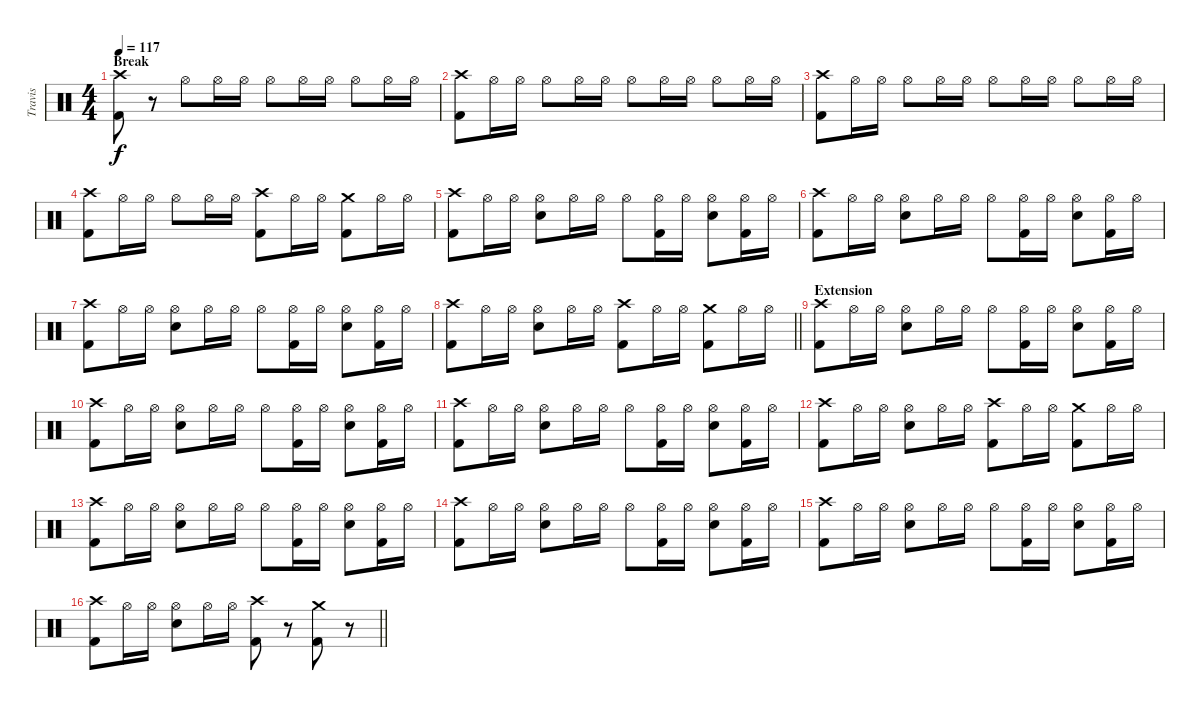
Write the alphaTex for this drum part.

\track ("Travis" "Travis") {instrument percussion}
\staff {score}
\articulation defaults
\ts (4 4)
\section ("" "Break")
\tempo 117
\clef neutral
\ks c
("Crash high (hit)" "Kick (hit) 2").8{dy f} r.8 "Hi-Hat (open)".8 "Hi-Hat (open)".16 "Hi-Hat (open)".16 "Hi-Hat (open)".8 "Hi-Hat (open)".16 "Hi-Hat (open)".16 "Hi-Hat (open)".8 "Hi-Hat (open)".16 "Hi-Hat (open)".16 |
("Crash high (hit)" "Kick (hit) 2").8 "Hi-Hat (open)".16 "Hi-Hat (open)".16 "Hi-Hat (open)".8 "Hi-Hat (open)".16 "Hi-Hat (open)".16 "Hi-Hat (open)".8 "Hi-Hat (open)".16 "Hi-Hat (open)".16 "Hi-Hat (open)".8 "Hi-Hat (open)".16 "Hi-Hat (open)".16 |
("Crash high (hit)" "Kick (hit) 2").8 "Hi-Hat (open)".16 "Hi-Hat (open)".16 "Hi-Hat (open)".8 "Hi-Hat (open)".16 "Hi-Hat (open)".16 "Hi-Hat (open)".8 "Hi-Hat (open)".16 "Hi-Hat (open)".16 "Hi-Hat (open)".8 "Hi-Hat (open)".16 "Hi-Hat (open)".16 |
("Crash high (hit)" "Kick (hit) 2").8 "Hi-Hat (open)".16 "Hi-Hat (open)".16 "Hi-Hat (open)".8 "Hi-Hat (open)".16 "Hi-Hat (open)".16 ("Crash high (hit)" "Kick (hit) 2").8 "Hi-Hat (open)".16 "Hi-Hat (open)".16 ("Crash medium (hit)" "Kick (hit) 2").8 "Hi-Hat (open)".16 "Hi-Hat (open)".16 |
("Crash high (hit)" "Kick (hit) 2").8 "Hi-Hat (open)".16 "Hi-Hat (open)".16 ("Hi-Hat (open)" "Electric Snare (hit)").8 "Hi-Hat (open)".16 "Hi-Hat (open)".16 "Hi-Hat (open)".8 ("Hi-Hat (open)" "Kick (hit) 2").16 "Hi-Hat (open)".16 ("Hi-Hat (open)" "Electric Snare (hit)").8 ("Hi-Hat (open)" "Kick (hit) 2").16 "Hi-Hat (open)".16 |
("Crash high (hit)" "Kick (hit) 2").8 "Hi-Hat (open)".16 "Hi-Hat (open)".16 ("Hi-Hat (open)" "Electric Snare (hit)").8 "Hi-Hat (open)".16 "Hi-Hat (open)".16 "Hi-Hat (open)".8 ("Hi-Hat (open)" "Kick (hit) 2").16 "Hi-Hat (open)".16 ("Hi-Hat (open)" "Electric Snare (hit)").8 ("Hi-Hat (open)" "Kick (hit) 2").16 "Hi-Hat (open)".16 |
("Crash high (hit)" "Kick (hit) 2").8 "Hi-Hat (open)".16 "Hi-Hat (open)".16 ("Hi-Hat (open)" "Electric Snare (hit)").8 "Hi-Hat (open)".16 "Hi-Hat (open)".16 "Hi-Hat (open)".8 ("Hi-Hat (open)" "Kick (hit) 2").16 "Hi-Hat (open)".16 ("Hi-Hat (open)" "Electric Snare (hit)").8 ("Hi-Hat (open)" "Kick (hit) 2").16 "Hi-Hat (open)".16 |
\barLineRight lightlight
("Crash high (hit)" "Kick (hit) 2").8 "Hi-Hat (open)".16 "Hi-Hat (open)".16 ("Hi-Hat (open)" "Electric Snare (hit)").8 "Hi-Hat (open)".16 "Hi-Hat (open)".16 ("Crash high (hit)" "Kick (hit) 2").8 "Hi-Hat (open)".16 "Hi-Hat (open)".16 ("Crash medium (hit)" "Kick (hit) 2").8 "Hi-Hat (open)".16 "Hi-Hat (open)".16 |
\section ("" "Extension")
("Crash high (hit)" "Kick (hit) 2").8 "Hi-Hat (open)".16 "Hi-Hat (open)".16 ("Hi-Hat (open)" "Electric Snare (hit)").8 "Hi-Hat (open)".16 "Hi-Hat (open)".16 "Hi-Hat (open)".8 ("Hi-Hat (open)" "Kick (hit) 2").16 "Hi-Hat (open)".16 ("Hi-Hat (open)" "Electric Snare (hit)").8 ("Hi-Hat (open)" "Kick (hit) 2").16 "Hi-Hat (open)".16 |
("Crash high (hit)" "Kick (hit) 2").8 "Hi-Hat (open)".16 "Hi-Hat (open)".16 ("Hi-Hat (open)" "Electric Snare (hit)").8 "Hi-Hat (open)".16 "Hi-Hat (open)".16 "Hi-Hat (open)".8 ("Hi-Hat (open)" "Kick (hit) 2").16 "Hi-Hat (open)".16 ("Hi-Hat (open)" "Electric Snare (hit)").8 ("Hi-Hat (open)" "Kick (hit) 2").16 "Hi-Hat (open)".16 |
("Crash high (hit)" "Kick (hit) 2").8 "Hi-Hat (open)".16 "Hi-Hat (open)".16 ("Hi-Hat (open)" "Electric Snare (hit)").8 "Hi-Hat (open)".16 "Hi-Hat (open)".16 "Hi-Hat (open)".8 ("Hi-Hat (open)" "Kick (hit) 2").16 "Hi-Hat (open)".16 ("Hi-Hat (open)" "Electric Snare (hit)").8 ("Hi-Hat (open)" "Kick (hit) 2").16 "Hi-Hat (open)".16 |
("Crash high (hit)" "Kick (hit) 2").8 "Hi-Hat (open)".16 "Hi-Hat (open)".16 ("Hi-Hat (open)" "Electric Snare (hit)").8 "Hi-Hat (open)".16 "Hi-Hat (open)".16 ("Crash high (hit)" "Kick (hit) 2").8 "Hi-Hat (open)".16 "Hi-Hat (open)".16 ("Crash medium (hit)" "Kick (hit) 2").8 "Hi-Hat (open)".16 "Hi-Hat (open)".16 |
("Crash high (hit)" "Kick (hit) 2").8 "Hi-Hat (open)".16 "Hi-Hat (open)".16 ("Hi-Hat (open)" "Electric Snare (hit)").8 "Hi-Hat (open)".16 "Hi-Hat (open)".16 "Hi-Hat (open)".8 ("Hi-Hat (open)" "Kick (hit) 2").16 "Hi-Hat (open)".16 ("Hi-Hat (open)" "Electric Snare (hit)").8 ("Hi-Hat (open)" "Kick (hit) 2").16 "Hi-Hat (open)".16 |
("Crash high (hit)" "Kick (hit) 2").8 "Hi-Hat (open)".16 "Hi-Hat (open)".16 ("Hi-Hat (open)" "Electric Snare (hit)").8 "Hi-Hat (open)".16 "Hi-Hat (open)".16 "Hi-Hat (open)".8 ("Hi-Hat (open)" "Kick (hit) 2").16 "Hi-Hat (open)".16 ("Hi-Hat (open)" "Electric Snare (hit)").8 ("Hi-Hat (open)" "Kick (hit) 2").16 "Hi-Hat (open)".16 |
("Crash high (hit)" "Kick (hit) 2").8 "Hi-Hat (open)".16 "Hi-Hat (open)".16 ("Hi-Hat (open)" "Electric Snare (hit)").8 "Hi-Hat (open)".16 "Hi-Hat (open)".16 "Hi-Hat (open)".8 ("Hi-Hat (open)" "Kick (hit) 2").16 "Hi-Hat (open)".16 ("Hi-Hat (open)" "Electric Snare (hit)").8 ("Hi-Hat (open)" "Kick (hit) 2").16 "Hi-Hat (open)".16 |
\barLineRight lightlight
("Crash high (hit)" "Kick (hit) 2").8 "Hi-Hat (open)".16 "Hi-Hat (open)".16 ("Hi-Hat (open)" "Electric Snare (hit)").8 "Hi-Hat (open)".16 "Hi-Hat (open)".16 ("Crash high (hit)" "Kick (hit) 2").8 r.8 ("Crash medium (hit)" "Kick (hit) 2").8 r.8
